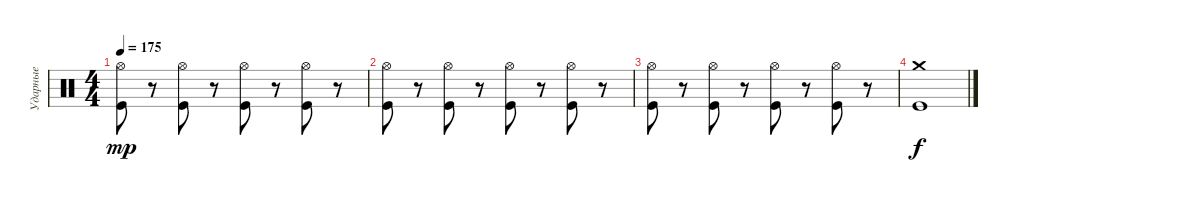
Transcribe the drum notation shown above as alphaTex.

\track ("Ударные" "Ударные") {instrument percussion}
\staff {score}
\articulation defaults
\ts (4 4)
\tempo 175
\clef neutral
\ks c
("Hi-Hat (open)" "Kick (hit)").8{dy mp} r.8 ("Hi-Hat (open)" "Kick (hit)").8 r.8 ("Hi-Hat (open)" "Kick (hit)").8 r.8 ("Hi-Hat (open)" "Kick (hit)").8 r.8 |
("Hi-Hat (open)" "Kick (hit)").8 r.8 ("Hi-Hat (open)" "Kick (hit)").8 r.8 ("Hi-Hat (open)" "Kick (hit)").8 r.8 ("Hi-Hat (open)" "Kick (hit)").8 r.8 |
("Hi-Hat (open)" "Kick (hit)").8 r.8 ("Hi-Hat (open)" "Kick (hit)").8 r.8 ("Hi-Hat (open)" "Kick (hit)").8 r.8 ("Hi-Hat (open)" "Kick (hit)").8 r.8 |
("Crash medium (hit)" "Kick (hit)").1{dy f}
